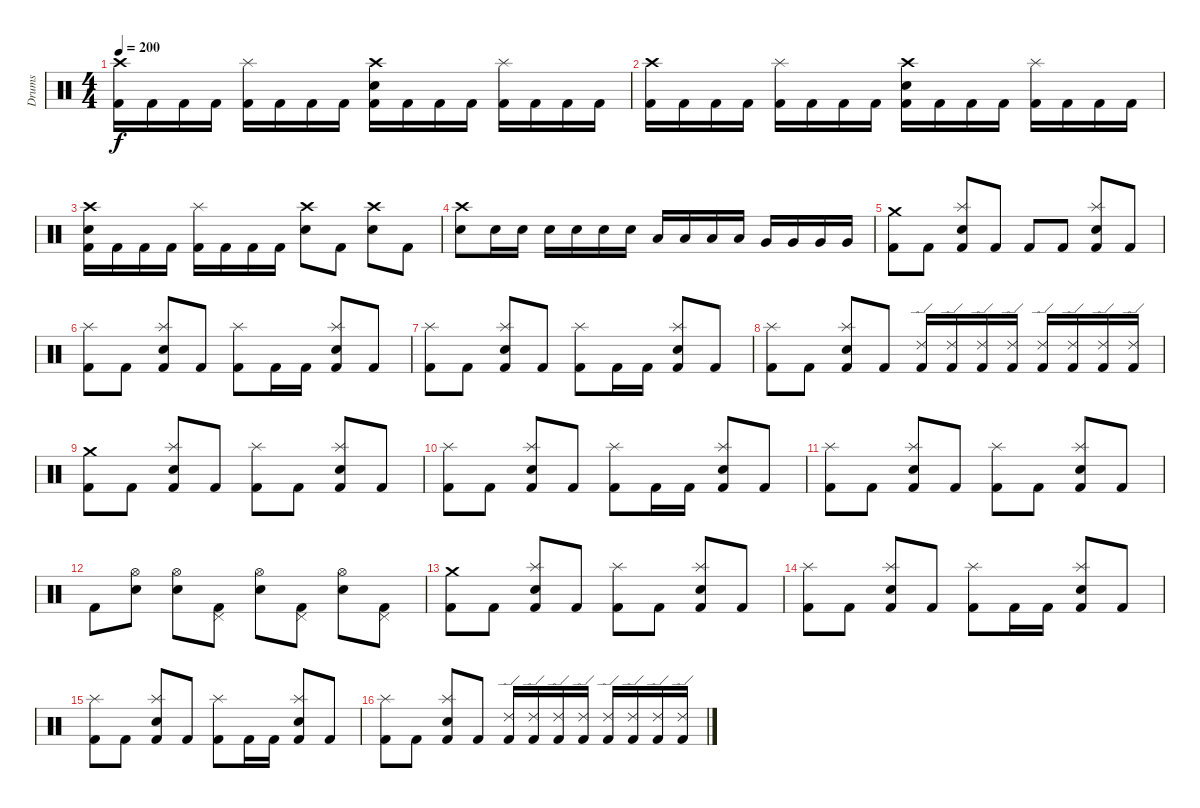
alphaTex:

\track ("Drums" "Drums") {instrument percussion}
\staff {score}
\articulation defaults
\ts (4 4)
\tempo 200
\clef neutral
\ks c
("Crash high (hit)" "Kick (hit) 2").16{dy f} "Kick (hit) 2".16 "Kick (hit) 2".16 "Kick (hit) 2".16 ("Splash (hit)" "Kick (hit) 2").16 "Kick (hit) 2".16 "Kick (hit) 2".16 "Kick (hit) 2".16 ("Crash high (hit)" "Snare (hit) 2" "Kick (hit) 2").16 "Kick (hit) 2".16 "Kick (hit) 2".16 "Kick (hit) 2".16 ("Splash (hit)" "Kick (hit) 2").16 "Kick (hit) 2".16 "Kick (hit) 2".16 "Kick (hit) 2".16 |
("Crash high (hit)" "Kick (hit) 2").16 "Kick (hit) 2".16 "Kick (hit) 2".16 "Kick (hit) 2".16 ("Splash (hit)" "Kick (hit) 2").16 "Kick (hit) 2".16 "Kick (hit) 2".16 "Kick (hit) 2".16 ("Crash high (hit)" "Snare (hit) 2" "Kick (hit) 2").16 "Kick (hit) 2".16 "Kick (hit) 2".16 "Kick (hit) 2".16 ("Splash (hit)" "Kick (hit) 2").16 "Kick (hit) 2".16 "Kick (hit) 2".16 "Kick (hit) 2".16 |
("Crash high (hit)" "Snare (hit) 2" "Kick (hit) 2").16 "Kick (hit) 2".16 "Kick (hit) 2".16 "Kick (hit) 2".16 ("Splash (hit)" "Kick (hit) 2").16 "Kick (hit) 2".16 "Kick (hit) 2".16 "Kick (hit) 2".16 ("Crash high (hit)" "Snare (hit) 2").8 "Kick (hit) 2".8 ("Crash high (hit)" "Snare (hit) 2").8 "Kick (hit) 2".8 |
("Crash high (hit)" "Snare (hit) 2").8 "Snare (hit) 2".16 "Snare (hit) 2".16 "Snare (hit) 2".16 "Snare (hit) 2".16 "Snare (hit) 2".16 "Snare (hit) 2".16 "Low Tom (hit)".16 "Low Tom (hit)".16 "Low Tom (hit)".16 "Low Tom (hit)".16 "Very Low Tom (hit)".16 "Very Low Tom (hit)".16 "Very Low Tom (hit)".16 "Very Low Tom (hit)".16 |
("Crash medium (hit)" "Kick (hit) 2").8 "Kick (hit) 2".8 ("Splash (hit)" "Snare (hit) 2" "Kick (hit) 2").8 "Kick (hit) 2".8 "Kick (hit) 2".8 "Kick (hit) 2".8 ("Splash (hit)" "Snare (hit) 2" "Kick (hit) 2").8 "Kick (hit) 2".8 |
("Splash (hit)" "Kick (hit) 2").8 "Kick (hit) 2".8 ("Splash (hit)" "Snare (hit) 2" "Kick (hit) 2").8 "Kick (hit) 2".8 ("Splash (hit)" "Kick (hit) 2").8 "Kick (hit) 2".16 "Kick (hit) 2".16 ("Splash (hit)" "Snare (hit) 2" "Kick (hit) 2").8 "Kick (hit) 2".8 |
("Splash (hit)" "Kick (hit) 2").8 "Kick (hit) 2".8 ("Splash (hit)" "Snare (hit) 2" "Kick (hit) 2").8 "Kick (hit) 2".8 ("Splash (hit)" "Kick (hit) 2").8 "Kick (hit) 2".16 "Kick (hit) 2".16 ("Splash (hit)" "Snare (hit) 2" "Kick (hit) 2").8 "Kick (hit) 2".8 |
("Splash (hit)" "Kick (hit) 2").8 "Kick (hit) 2".8 ("Splash (hit)" "Snare (hit) 2" "Kick (hit) 2").8 "Kick (hit) 2".8 ("Ride (edge) 2" "Kick (hit) 2").16 ("Ride (edge) 2" "Kick (hit) 2").16 ("Ride (edge) 2" "Kick (hit) 2").16 ("Ride (edge) 2" "Kick (hit) 2").16 ("Ride (edge) 2" "Kick (hit) 2").16 ("Ride (edge) 2" "Kick (hit) 2").16 ("Ride (edge) 2" "Kick (hit) 2").16 ("Ride (edge) 2" "Kick (hit) 2").16 |
("Crash medium (hit)" "Kick (hit) 2").8 "Kick (hit) 2".8 ("Splash (hit)" "Snare (hit) 2" "Kick (hit) 2").8 "Kick (hit) 2".8 ("Splash (hit)" "Kick (hit) 2").8 "Kick (hit) 2".8 ("Splash (hit)" "Snare (hit) 2" "Kick (hit) 2").8 "Kick (hit) 2".8 |
("Splash (hit)" "Kick (hit) 2").8 "Kick (hit) 2".8 ("Splash (hit)" "Snare (hit) 2" "Kick (hit) 2").8 "Kick (hit) 2".8 ("Splash (hit)" "Kick (hit) 2").8 "Kick (hit) 2".16 "Kick (hit) 2".16 ("Splash (hit)" "Snare (hit) 2" "Kick (hit) 2").8 "Kick (hit) 2".8 |
("Splash (hit)" "Kick (hit) 2").8 "Kick (hit) 2".8 ("Splash (hit)" "Snare (hit) 2" "Kick (hit) 2").8 "Kick (hit) 2".8 ("Splash (hit)" "Kick (hit) 2").8 "Kick (hit) 2".8 ("Splash (hit)" "Snare (hit) 2" "Kick (hit) 2").8 "Kick (hit) 2".8 |
"Kick (hit) 2".8 ("Snare (hit) 2" "Hi-Hat (open)").8 ("Snare (hit) 2" "Hi-Hat (open)").8 ("Pedal Hi-Hat (hit)" "Kick (hit) 2").8 ("Snare (hit) 2" "Hi-Hat (open)").8 ("Pedal Hi-Hat (hit)" "Kick (hit) 2").8 ("Snare (hit) 2" "Hi-Hat (open)").8 ("Pedal Hi-Hat (hit)" "Kick (hit) 2").8 |
("Crash medium (hit)" "Kick (hit) 2").8 "Kick (hit) 2".8 ("Splash (hit)" "Snare (hit) 2" "Kick (hit) 2").8 "Kick (hit) 2".8 ("Splash (hit)" "Kick (hit) 2").8 "Kick (hit) 2".8 ("Splash (hit)" "Snare (hit) 2" "Kick (hit) 2").8 "Kick (hit) 2".8 |
("Splash (hit)" "Kick (hit) 2").8 "Kick (hit) 2".8 ("Splash (hit)" "Snare (hit) 2" "Kick (hit) 2").8 "Kick (hit) 2".8 ("Splash (hit)" "Kick (hit) 2").8 "Kick (hit) 2".16 "Kick (hit) 2".16 ("Splash (hit)" "Snare (hit) 2" "Kick (hit) 2").8 "Kick (hit) 2".8 |
("Splash (hit)" "Kick (hit) 2").8 "Kick (hit) 2".8 ("Splash (hit)" "Snare (hit) 2" "Kick (hit) 2").8 "Kick (hit) 2".8 ("Splash (hit)" "Kick (hit) 2").8 "Kick (hit) 2".16 "Kick (hit) 2".16 ("Splash (hit)" "Snare (hit) 2" "Kick (hit) 2").8 "Kick (hit) 2".8 |
("Splash (hit)" "Kick (hit) 2").8 "Kick (hit) 2".8 ("Splash (hit)" "Snare (hit) 2" "Kick (hit) 2").8 "Kick (hit) 2".8 ("Ride (edge) 2" "Kick (hit) 2").16 ("Ride (edge) 2" "Kick (hit) 2").16 ("Ride (edge) 2" "Kick (hit) 2").16 ("Ride (edge) 2" "Kick (hit) 2").16 ("Ride (edge) 2" "Kick (hit) 2").16 ("Ride (edge) 2" "Kick (hit) 2").16 ("Ride (edge) 2" "Kick (hit) 2").16 ("Ride (edge) 2" "Kick (hit) 2").16
